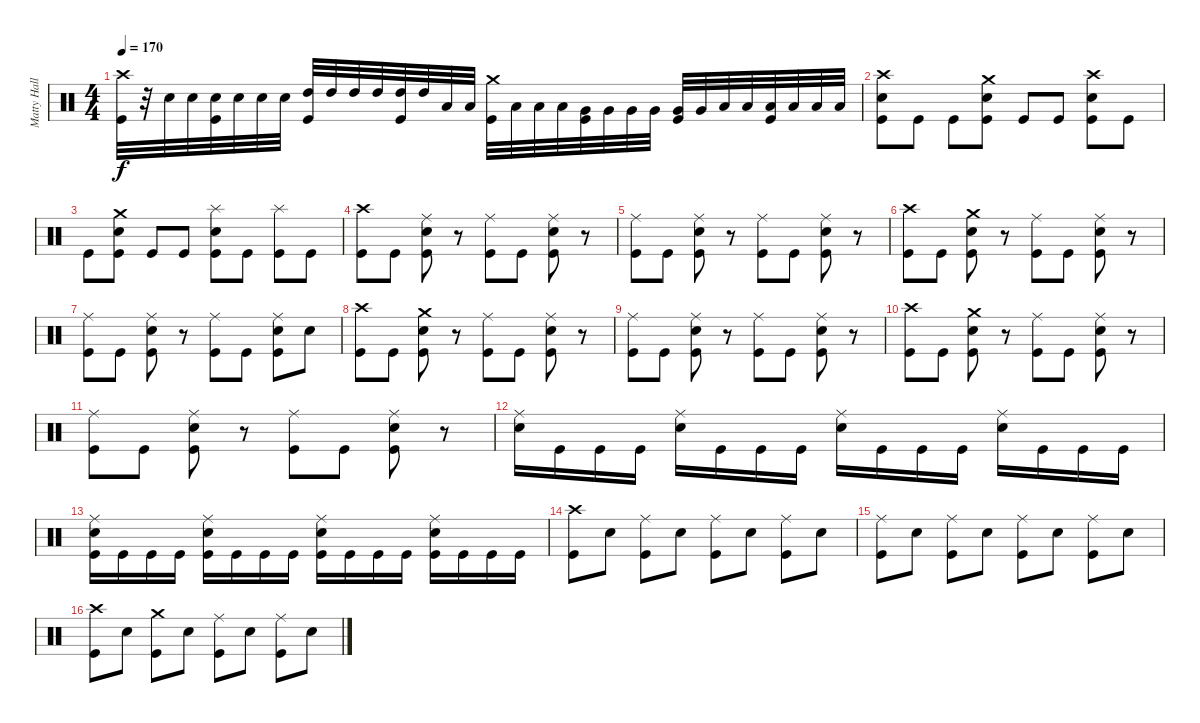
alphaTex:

\track ("Matty Hallick - Drums" "Matty Hall") {instrument percussion}
\staff {score}
\articulation defaults
\ts (4 4)
\tempo 170
\clef neutral
\ks c
("Crash high (hit)" "Kick (hit)").32{dy f} r.32 "Snare (hit) 2".32 "Snare (hit) 2".32 ("Snare (hit) 2" "Kick (hit)").32 "Snare (hit) 2".32 "Snare (hit) 2".32 "Snare (hit) 2".32 ("High Tom (hit)" "Kick (hit)").32 "High Tom (hit)".32 "High Tom (hit)".32 "High Tom (hit)".32 ("High Tom (hit)" "Kick (hit)").32 "High Tom (hit)".32 "Low Tom (hit)".32 "Low Tom (hit)".32 ("Crash medium (hit)" "Kick (hit)").32 "Low Tom (hit)".32 "Low Tom (hit)".32 "Low Tom (hit)".32 ("Very Low Tom (hit)" "Kick (hit)").32 "Very Low Tom (hit)".32 "Very Low Tom (hit)".32 "Very Low Tom (hit)".32 ("Very Low Tom (hit)" "Kick (hit)").32 "Very Low Tom (hit)".32 "Low Floor Tom (hit)".32 "Low Floor Tom (hit)".32 ("Low Floor Tom (hit)" "Kick (hit)").32 "Low Floor Tom (hit)".32 "Low Floor Tom (hit)".32 "Low Floor Tom (hit)".32 |
("Crash high (hit)" "Snare (hit) 2" "Kick (hit)").8 "Kick (hit)".8 "Kick (hit)".8 ("Crash medium (hit)" "Snare (hit) 2" "Kick (hit)").8 "Kick (hit)".8 "Kick (hit)".8 ("Crash high (hit)" "Snare (hit) 2" "Kick (hit)").8 "Kick (hit)".8 |
"Kick (hit)".8 ("Crash medium (hit)" "Snare (hit) 2" "Kick (hit)").8 "Kick (hit)".8 "Kick (hit)".8 ("Splash (hit)" "Snare (hit) 2" "Kick (hit)").8 "Kick (hit)".8 ("Splash (hit)" "Kick (hit)").8 "Kick (hit)".8 |
("Crash high (hit)" "Kick (hit)").8 "Kick (hit)".8 ("Ride (middle)" "Snare (hit) 2" "Kick (hit)").8 r.8 ("Ride (middle)" "Kick (hit)").8 "Kick (hit)".8 ("Ride (middle)" "Snare (hit) 2" "Kick (hit)").8 r.8 |
("Ride (middle)" "Kick (hit)").8 "Kick (hit)".8 ("Ride (middle)" "Snare (hit) 2" "Kick (hit)").8 r.8 ("Ride (middle)" "Kick (hit)").8 "Kick (hit)".8 ("Ride (middle)" "Snare (hit) 2" "Kick (hit)").8 r.8 |
("Crash high (hit)" "Kick (hit)").8 "Kick (hit)".8 ("Crash medium (hit)" "Snare (hit) 2" "Kick (hit)").8 r.8 ("Ride (middle)" "Kick (hit)").8 "Kick (hit)".8 ("Ride (middle)" "Snare (hit) 2" "Kick (hit)").8 r.8 |
("Ride (middle)" "Kick (hit)").8 "Kick (hit)".8 ("Ride (middle)" "Snare (hit) 2" "Kick (hit)").8 r.8 ("Ride (middle)" "Kick (hit)").8 "Kick (hit)".8 ("Ride (middle)" "Snare (hit) 2" "Kick (hit)").8 "Snare (hit) 2".8 |
("Crash high (hit)" "Kick (hit)").8 "Kick (hit)".8 ("Crash medium (hit)" "Snare (hit) 2" "Kick (hit)").8 r.8 ("Ride (middle)" "Kick (hit)").8 "Kick (hit)".8 ("Ride (middle)" "Snare (hit) 2" "Kick (hit)").8 r.8 |
("Ride (middle)" "Kick (hit)").8 "Kick (hit)".8 ("Ride (middle)" "Snare (hit) 2" "Kick (hit)").8 r.8 ("Ride (middle)" "Kick (hit)").8 "Kick (hit)".8 ("Ride (middle)" "Snare (hit) 2" "Kick (hit)").8 r.8 |
("Crash high (hit)" "Kick (hit)").8 "Kick (hit)".8 ("Crash medium (hit)" "Snare (hit) 2" "Kick (hit)").8 r.8 ("Ride (middle)" "Kick (hit)").8 "Kick (hit)".8 ("Ride (middle)" "Snare (hit) 2" "Kick (hit)").8 r.8 |
("Ride (middle)" "Kick (hit)").8 "Kick (hit)".8 ("Ride (middle)" "Snare (hit) 2" "Kick (hit)").8 r.8 ("Ride (middle)" "Kick (hit)").8 "Kick (hit)".8 ("Ride (middle)" "Snare (hit) 2" "Kick (hit)").8 r.8 |
("Ride (middle)" "Snare (hit) 2").16 "Kick (hit)".16 "Kick (hit)".16 "Kick (hit)".16 ("Ride (middle)" "Snare (hit) 2").16 "Kick (hit)".16 "Kick (hit)".16 "Kick (hit)".16 ("Ride (middle)" "Snare (hit) 2").16 "Kick (hit)".16 "Kick (hit)".16 "Kick (hit)".16 ("Ride (middle)" "Snare (hit) 2").16 "Kick (hit)".16 "Kick (hit)".16 "Kick (hit)".16 |
("Ride (middle)" "Snare (hit) 2" "Kick (hit)").16 "Kick (hit)".16 "Kick (hit)".16 "Kick (hit)".16 ("Ride (middle)" "Snare (hit) 2" "Kick (hit)").16 "Kick (hit)".16 "Kick (hit)".16 "Kick (hit)".16 ("Ride (middle)" "Snare (hit) 2" "Kick (hit)").16 "Kick (hit)".16 "Kick (hit)".16 "Kick (hit)".16 ("Ride (middle)" "Snare (hit) 2" "Kick (hit)").16 "Kick (hit)".16 "Kick (hit)".16 "Kick (hit)".16 |
("Crash high (hit)" "Kick (hit)").8 "Snare (hit) 2".8 ("Ride (middle)" "Kick (hit)").8 "Snare (hit) 2".8 ("Ride (middle)" "Kick (hit)").8 "Snare (hit) 2".8 ("Ride (middle)" "Kick (hit)").8 "Snare (hit) 2".8 |
("Ride (middle)" "Kick (hit)").8 "Snare (hit) 2".8 ("Ride (middle)" "Kick (hit)").8 "Snare (hit) 2".8 ("Ride (middle)" "Kick (hit)").8 "Snare (hit) 2".8 ("Ride (middle)" "Kick (hit)").8 "Snare (hit) 2".8 |
("Crash high (hit)" "Kick (hit)").8 "Snare (hit) 2".8 ("Crash medium (hit)" "Kick (hit)").8 "Snare (hit) 2".8 ("Ride (middle)" "Kick (hit)").8 "Snare (hit) 2".8 ("Ride (middle)" "Kick (hit)").8 "Snare (hit) 2".8
